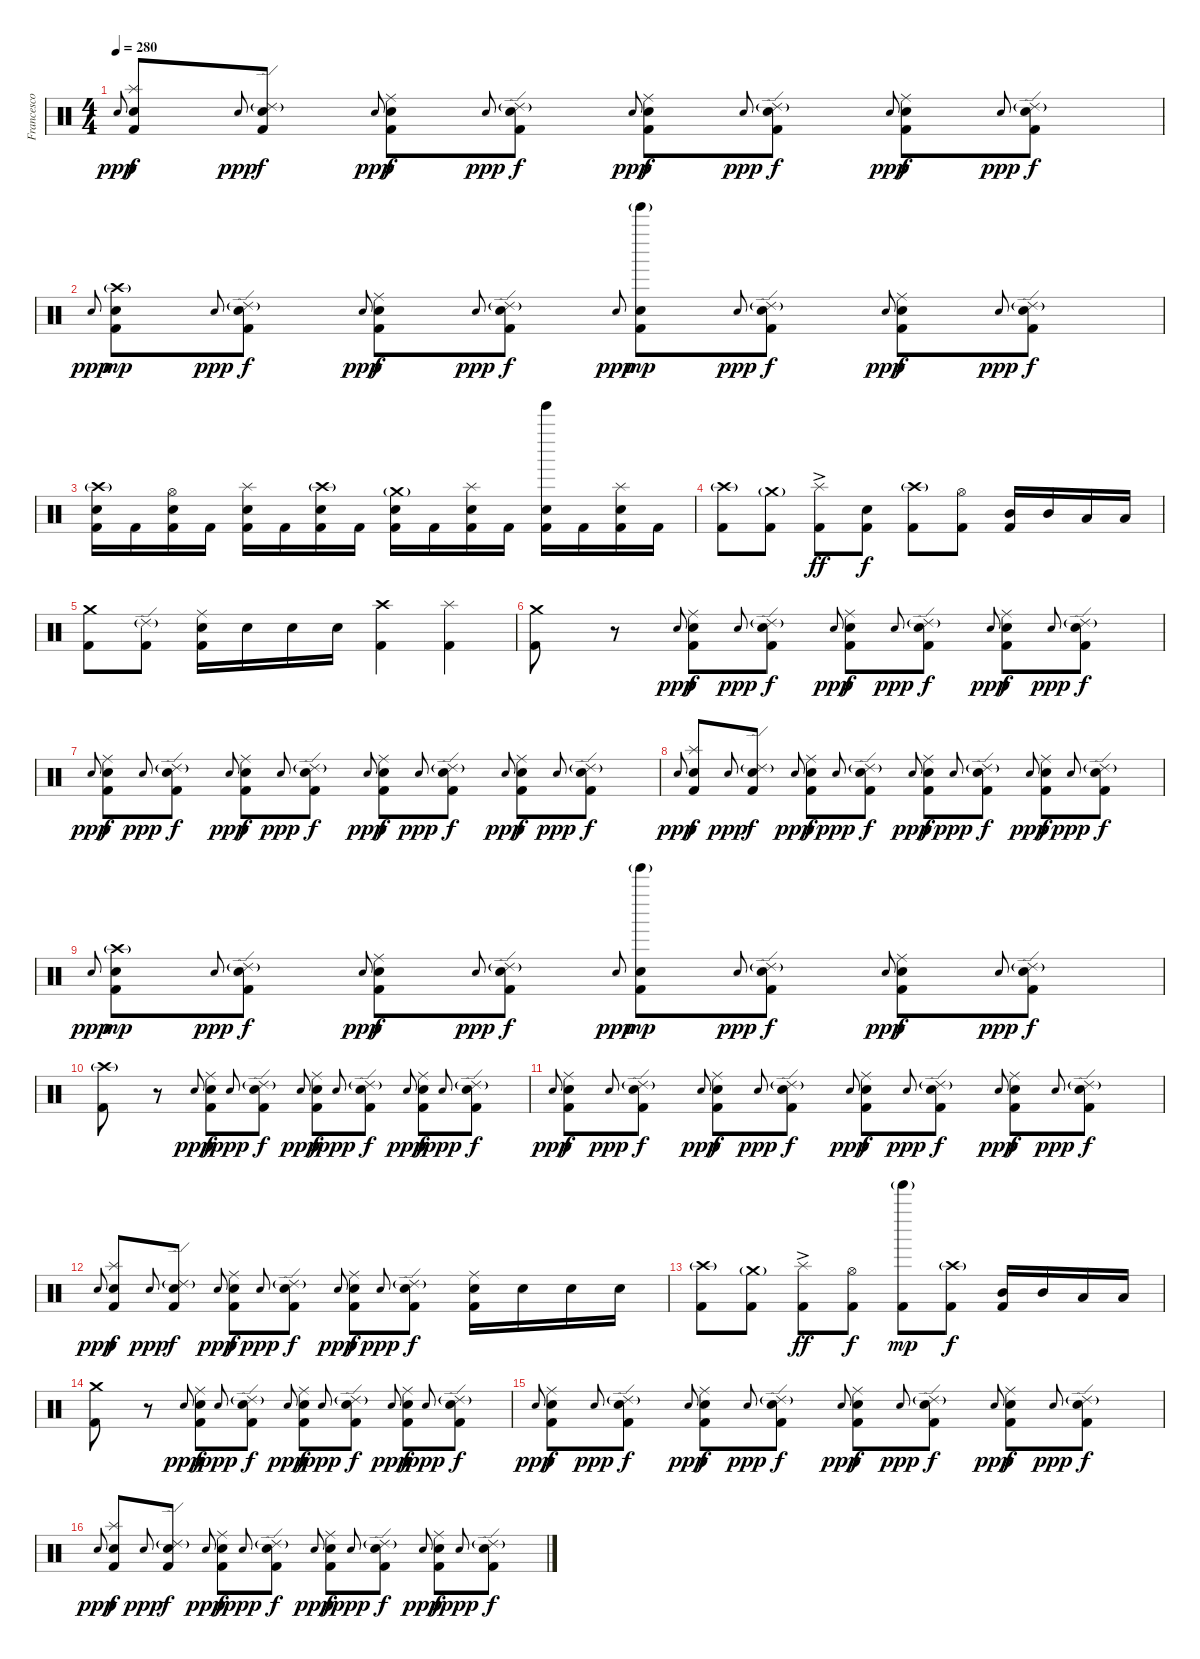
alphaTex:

\track ("Francesco Ferrini" "Francesco ") {instrument percussion}
\staff {score}
\articulation defaults
\ts (4 4)
\tempo 280
\clef neutral
\ks c "Electric Snare (hit)"{h}.8{gr onbeat dy ppp}
("Splash (hit)" "Electric Snare (hit)" "Kick (hit) 2").8{dy f} "Electric Snare (hit)"{h}.8{gr onbeat dy ppp} ("Ride (edge) 2"{g} "Electric Snare (hit)" "Kick (hit) 2").8{dy f} "Electric Snare (hit)"{h}.8{gr onbeat dy ppp} ("Ride (middle)" "Electric Snare (hit)" "Kick (hit) 2").8{dy f} "Electric Snare (hit)"{h}.8{gr onbeat dy ppp} ("Ride (edge) 2"{g} "Electric Snare (hit)" "Kick (hit) 2").8{dy f} "Electric Snare (hit)"{h}.8{gr onbeat dy ppp} ("Ride (middle)" "Electric Snare (hit)" "Kick (hit) 2").8{dy f} "Electric Snare (hit)"{h}.8{gr onbeat dy ppp} ("Ride (edge) 2"{g} "Electric Snare (hit)" "Kick (hit) 2").8{dy f} "Electric Snare (hit)"{h}.8{gr onbeat dy ppp} ("Ride (middle)" "Electric Snare (hit)" "Kick (hit) 2").8{dy f} "Electric Snare (hit)"{h}.8{gr onbeat dy ppp} ("Ride (edge) 2"{g} "Electric Snare (hit)" "Kick (hit) 2").8{dy f} |
"Electric Snare (hit)"{h}.8{gr onbeat dy ppp} ("Crash high (hit)"{g} "Electric Snare (hit)" "Kick (hit) 2").8{dy mp} "Electric Snare (hit)"{h}.8{gr onbeat dy ppp} ("Ride (edge) 2"{g} "Electric Snare (hit)" "Kick (hit) 2").8{dy f} "Electric Snare (hit)"{h}.8{gr onbeat dy ppp} ("Ride (middle)" "Electric Snare (hit)" "Kick (hit) 2").8{dy f} "Electric Snare (hit)"{h}.8{gr onbeat dy ppp} ("Ride (edge) 2"{g} "Electric Snare (hit)" "Kick (hit) 2").8{dy f} "Electric Snare (hit)"{h}.8{gr onbeat dy ppp} ("Tinkle Bell (hit)"{g} "Electric Snare (hit)" "Kick (hit) 2").8{dy mp} "Electric Snare (hit)"{h}.8{gr onbeat dy ppp} ("Ride (edge) 2"{g} "Electric Snare (hit)" "Kick (hit) 2").8{dy f} "Electric Snare (hit)"{h}.8{gr onbeat dy ppp} ("Ride (middle)" "Electric Snare (hit)" "Kick (hit) 2").8{dy f} "Electric Snare (hit)"{h}.8{gr onbeat dy ppp} ("Ride (edge) 2"{g} "Electric Snare (hit)" "Kick (hit) 2").8{dy f} |
("Crash high (hit)"{g} "Electric Snare (hit)" "Kick (hit) 2").16 "Kick (hit) 2".16 ("Hi-Hat (open)" "Electric Snare (hit)" "Kick (hit) 2").16 "Kick (hit) 2".16 ("Splash (hit)" "Electric Snare (hit)" "Kick (hit) 2").16 "Kick (hit) 2".16 ("Crash high (hit)"{g} "Electric Snare (hit)" "Kick (hit) 2").16 "Kick (hit) 2".16 ("Crash medium (hit)"{g} "Electric Snare (hit)" "Kick (hit) 2").16 "Kick (hit) 2".16 ("Splash (hit)" "Electric Snare (hit)" "Kick (hit) 2").16 "Kick (hit) 2".16 ("Tinkle Bell (hit)" "Electric Snare (hit)" "Kick (hit) 2").16 "Kick (hit) 2".16 ("Splash (hit)" "Electric Snare (hit)" "Kick (hit) 2").16 "Kick (hit) 2".16 |
("Crash high (hit)"{g} "Kick (hit) 2").8 ("Crash medium (hit)"{g} "Kick (hit) 2").8 ("Splash (hit)"{ac} "Kick (hit) 2").8{dy ff} ("Electric Snare (hit)" "Kick (hit) 2").8{dy f} ("Crash high (hit)"{g} "Kick (hit) 2").8 ("Hi-Hat (open)" "Kick (hit) 2").8 ("Mid Tom (hit)" "Kick (hit) 2").16 "Mid Tom (hit)".16 "Low Tom (hit)".16 "Low Tom (hit)".16 |
("Crash medium (hit)" "Kick (hit) 2").8 ("Ride (edge) 2"{g} "Kick (hit) 2").8 ("Ride (middle)" "Electric Snare (hit)" "Kick (hit) 2").16 "Electric Snare (hit)".16 "Electric Snare (hit)".16 "Electric Snare (hit)".16 ("Crash high (hit)" "Kick (hit) 2").4 ("Splash (hit)" "Kick (hit) 2").4 |
("Crash medium (hit)" "Kick (hit) 2").8 r.8 "Electric Snare (hit)"{h}.8{gr onbeat dy ppp} ("Ride (middle)" "Electric Snare (hit)" "Kick (hit) 2").8{dy f} "Electric Snare (hit)"{h}.8{gr onbeat dy ppp} ("Ride (edge) 2"{g} "Electric Snare (hit)" "Kick (hit) 2").8{dy f} "Electric Snare (hit)"{h}.8{gr onbeat dy ppp} ("Ride (middle)" "Electric Snare (hit)" "Kick (hit) 2").8{dy f} "Electric Snare (hit)"{h}.8{gr onbeat dy ppp} ("Ride (edge) 2"{g} "Electric Snare (hit)" "Kick (hit) 2").8{dy f} "Electric Snare (hit)"{h}.8{gr onbeat dy ppp} ("Ride (middle)" "Electric Snare (hit)" "Kick (hit) 2").8{dy f} "Electric Snare (hit)"{h}.8{gr onbeat dy ppp} ("Ride (edge) 2"{g} "Electric Snare (hit)" "Kick (hit) 2").8{dy f} |
"Electric Snare (hit)"{h}.8{gr onbeat dy ppp} ("Ride (middle)" "Electric Snare (hit)" "Kick (hit) 2").8{dy f} "Electric Snare (hit)"{h}.8{gr onbeat dy ppp} ("Ride (edge) 2"{g} "Electric Snare (hit)" "Kick (hit) 2").8{dy f} "Electric Snare (hit)"{h}.8{gr onbeat dy ppp} ("Ride (middle)" "Electric Snare (hit)" "Kick (hit) 2").8{dy f} "Electric Snare (hit)"{h}.8{gr onbeat dy ppp} ("Ride (edge) 2"{g} "Electric Snare (hit)" "Kick (hit) 2").8{dy f} "Electric Snare (hit)"{h}.8{gr onbeat dy ppp} ("Ride (middle)" "Electric Snare (hit)" "Kick (hit) 2").8{dy f} "Electric Snare (hit)"{h}.8{gr onbeat dy ppp} ("Ride (edge) 2"{g} "Electric Snare (hit)" "Kick (hit) 2").8{dy f} "Electric Snare (hit)"{h}.8{gr onbeat dy ppp} ("Ride (middle)" "Electric Snare (hit)" "Kick (hit) 2").8{dy f} "Electric Snare (hit)"{h}.8{gr onbeat dy ppp} ("Ride (edge) 2"{g} "Electric Snare (hit)" "Kick (hit) 2").8{dy f} |
"Electric Snare (hit)"{h}.8{gr onbeat dy ppp} ("Splash (hit)" "Electric Snare (hit)" "Kick (hit) 2").8{dy f} "Electric Snare (hit)"{h}.8{gr onbeat dy ppp} ("Ride (edge) 2"{g} "Electric Snare (hit)" "Kick (hit) 2").8{dy f} "Electric Snare (hit)"{h}.8{gr onbeat dy ppp} ("Ride (middle)" "Electric Snare (hit)" "Kick (hit) 2").8{dy f} "Electric Snare (hit)"{h}.8{gr onbeat dy ppp} ("Ride (edge) 2"{g} "Electric Snare (hit)" "Kick (hit) 2").8{dy f} "Electric Snare (hit)"{h}.8{gr onbeat dy ppp} ("Ride (middle)" "Electric Snare (hit)" "Kick (hit) 2").8{dy f} "Electric Snare (hit)"{h}.8{gr onbeat dy ppp} ("Ride (edge) 2"{g} "Electric Snare (hit)" "Kick (hit) 2").8{dy f} "Electric Snare (hit)"{h}.8{gr onbeat dy ppp} ("Ride (middle)" "Electric Snare (hit)" "Kick (hit) 2").8{dy f} "Electric Snare (hit)"{h}.8{gr onbeat dy ppp} ("Ride (edge) 2"{g} "Electric Snare (hit)" "Kick (hit) 2").8{dy f} |
"Electric Snare (hit)"{h}.8{gr onbeat dy ppp} ("Crash high (hit)"{g} "Electric Snare (hit)" "Kick (hit) 2").8{dy mp} "Electric Snare (hit)"{h}.8{gr onbeat dy ppp} ("Ride (edge) 2"{g} "Electric Snare (hit)" "Kick (hit) 2").8{dy f} "Electric Snare (hit)"{h}.8{gr onbeat dy ppp} ("Ride (middle)" "Electric Snare (hit)" "Kick (hit) 2").8{dy f} "Electric Snare (hit)"{h}.8{gr onbeat dy ppp} ("Ride (edge) 2"{g} "Electric Snare (hit)" "Kick (hit) 2").8{dy f} "Electric Snare (hit)"{h}.8{gr onbeat dy ppp} ("Tinkle Bell (hit)"{g} "Electric Snare (hit)" "Kick (hit) 2").8{dy mp} "Electric Snare (hit)"{h}.8{gr onbeat dy ppp} ("Ride (edge) 2"{g} "Electric Snare (hit)" "Kick (hit) 2").8{dy f} "Electric Snare (hit)"{h}.8{gr onbeat dy ppp} ("Ride (middle)" "Electric Snare (hit)" "Kick (hit) 2").8{dy f} "Electric Snare (hit)"{h}.8{gr onbeat dy ppp} ("Ride (edge) 2"{g} "Electric Snare (hit)" "Kick (hit) 2").8{dy f} |
("Crash high (hit)"{g} "Kick (hit) 2").8 r.8 "Electric Snare (hit)"{h}.8{gr onbeat dy ppp} ("Ride (middle)" "Electric Snare (hit)" "Kick (hit) 2").8{dy f} "Electric Snare (hit)"{h}.8{gr onbeat dy ppp} ("Ride (edge) 2"{g} "Electric Snare (hit)" "Kick (hit) 2").8{dy f} "Electric Snare (hit)"{h}.8{gr onbeat dy ppp} ("Ride (middle)" "Electric Snare (hit)" "Kick (hit) 2").8{dy f} "Electric Snare (hit)"{h}.8{gr onbeat dy ppp} ("Ride (edge) 2"{g} "Electric Snare (hit)" "Kick (hit) 2").8{dy f} "Electric Snare (hit)"{h}.8{gr onbeat dy ppp} ("Ride (middle)" "Electric Snare (hit)" "Kick (hit) 2").8{dy f} "Electric Snare (hit)"{h}.8{gr onbeat dy ppp} ("Ride (edge) 2"{g} "Electric Snare (hit)" "Kick (hit) 2").8{dy f} |
"Electric Snare (hit)"{h}.8{gr onbeat dy ppp} ("Ride (middle)" "Electric Snare (hit)" "Kick (hit) 2").8{dy f} "Electric Snare (hit)"{h}.8{gr onbeat dy ppp} ("Ride (edge) 2"{g} "Electric Snare (hit)" "Kick (hit) 2").8{dy f} "Electric Snare (hit)"{h}.8{gr onbeat dy ppp} ("Ride (middle)" "Electric Snare (hit)" "Kick (hit) 2").8{dy f} "Electric Snare (hit)"{h}.8{gr onbeat dy ppp} ("Ride (edge) 2"{g} "Electric Snare (hit)" "Kick (hit) 2").8{dy f} "Electric Snare (hit)"{h}.8{gr onbeat dy ppp} ("Ride (middle)" "Electric Snare (hit)" "Kick (hit) 2").8{dy f} "Electric Snare (hit)"{h}.8{gr onbeat dy ppp} ("Ride (edge) 2"{g} "Electric Snare (hit)" "Kick (hit) 2").8{dy f} "Electric Snare (hit)"{h}.8{gr onbeat dy ppp} ("Ride (middle)" "Electric Snare (hit)" "Kick (hit) 2").8{dy f} "Electric Snare (hit)"{h}.8{gr onbeat dy ppp} ("Ride (edge) 2"{g} "Electric Snare (hit)" "Kick (hit) 2").8{dy f} |
"Electric Snare (hit)"{h}.8{gr onbeat dy ppp} ("Splash (hit)" "Electric Snare (hit)" "Kick (hit) 2").8{dy f} "Electric Snare (hit)"{h}.8{gr onbeat dy ppp} ("Ride (edge) 2"{g} "Electric Snare (hit)" "Kick (hit) 2").8{dy f} "Electric Snare (hit)"{h}.8{gr onbeat dy ppp} ("Ride (middle)" "Electric Snare (hit)" "Kick (hit) 2").8{dy f} "Electric Snare (hit)"{h}.8{gr onbeat dy ppp} ("Ride (edge) 2"{g} "Electric Snare (hit)" "Kick (hit) 2").8{dy f} "Electric Snare (hit)"{h}.8{gr onbeat dy ppp} ("Ride (middle)" "Electric Snare (hit)" "Kick (hit) 2").8{dy f} "Electric Snare (hit)"{h}.8{gr onbeat dy ppp} ("Ride (edge) 2"{g} "Electric Snare (hit)" "Kick (hit) 2").8{dy f} ("Ride (middle)" "Electric Snare (hit)" "Kick (hit) 2").16 "Electric Snare (hit)".16 "Electric Snare (hit)".16 "Electric Snare (hit)".16 |
("Crash high (hit)"{g} "Kick (hit) 2").8 ("Crash medium (hit)"{g} "Kick (hit) 2").8 ("Splash (hit)"{ac} "Kick (hit) 2").8{dy ff} ("Hi-Hat (open)" "Kick (hit) 2").8{dy f} ("Tinkle Bell (hit)"{g} "Kick (hit) 2").8{dy mp} ("Crash high (hit)"{g} "Kick (hit) 2").8{dy f} ("Mid Tom (hit)" "Kick (hit) 2").16 "Mid Tom (hit)".16 "Low Tom (hit)".16 "Low Tom (hit)".16 |
("Crash medium (hit)" "Kick (hit) 2").8 r.8 "Electric Snare (hit)"{h}.8{gr onbeat dy ppp} ("Ride (middle)" "Electric Snare (hit)" "Kick (hit) 2").8{dy f} "Electric Snare (hit)"{h}.8{gr onbeat dy ppp} ("Ride (edge) 2"{g} "Electric Snare (hit)" "Kick (hit) 2").8{dy f} "Electric Snare (hit)"{h}.8{gr onbeat dy ppp} ("Ride (middle)" "Electric Snare (hit)" "Kick (hit) 2").8{dy f} "Electric Snare (hit)"{h}.8{gr onbeat dy ppp} ("Ride (edge) 2"{g} "Electric Snare (hit)" "Kick (hit) 2").8{dy f} "Electric Snare (hit)"{h}.8{gr onbeat dy ppp} ("Ride (middle)" "Electric Snare (hit)" "Kick (hit) 2").8{dy f} "Electric Snare (hit)"{h}.8{gr onbeat dy ppp} ("Ride (edge) 2"{g} "Electric Snare (hit)" "Kick (hit) 2").8{dy f} |
"Electric Snare (hit)"{h}.8{gr onbeat dy ppp} ("Ride (middle)" "Electric Snare (hit)" "Kick (hit) 2").8{dy f} "Electric Snare (hit)"{h}.8{gr onbeat dy ppp} ("Ride (edge) 2"{g} "Electric Snare (hit)" "Kick (hit) 2").8{dy f} "Electric Snare (hit)"{h}.8{gr onbeat dy ppp} ("Ride (middle)" "Electric Snare (hit)" "Kick (hit) 2").8{dy f} "Electric Snare (hit)"{h}.8{gr onbeat dy ppp} ("Ride (edge) 2"{g} "Electric Snare (hit)" "Kick (hit) 2").8{dy f} "Electric Snare (hit)"{h}.8{gr onbeat dy ppp} ("Ride (middle)" "Electric Snare (hit)" "Kick (hit) 2").8{dy f} "Electric Snare (hit)"{h}.8{gr onbeat dy ppp} ("Ride (edge) 2"{g} "Electric Snare (hit)" "Kick (hit) 2").8{dy f} "Electric Snare (hit)"{h}.8{gr onbeat dy ppp} ("Ride (middle)" "Electric Snare (hit)" "Kick (hit) 2").8{dy f} "Electric Snare (hit)"{h}.8{gr onbeat dy ppp} ("Ride (edge) 2"{g} "Electric Snare (hit)" "Kick (hit) 2").8{dy f} |
"Electric Snare (hit)"{h}.8{gr onbeat dy ppp} ("Splash (hit)" "Electric Snare (hit)" "Kick (hit) 2").8{dy f} "Electric Snare (hit)"{h}.8{gr onbeat dy ppp} ("Ride (edge) 2"{g} "Electric Snare (hit)" "Kick (hit) 2").8{dy f} "Electric Snare (hit)"{h}.8{gr onbeat dy ppp} ("Ride (middle)" "Electric Snare (hit)" "Kick (hit) 2").8{dy f} "Electric Snare (hit)"{h}.8{gr onbeat dy ppp} ("Ride (edge) 2"{g} "Electric Snare (hit)" "Kick (hit) 2").8{dy f} "Electric Snare (hit)"{h}.8{gr onbeat dy ppp} ("Ride (middle)" "Electric Snare (hit)" "Kick (hit) 2").8{dy f} "Electric Snare (hit)"{h}.8{gr onbeat dy ppp} ("Ride (edge) 2"{g} "Electric Snare (hit)" "Kick (hit) 2").8{dy f} "Electric Snare (hit)"{h}.8{gr onbeat dy ppp} ("Ride (middle)" "Electric Snare (hit)" "Kick (hit) 2").8{dy f} "Electric Snare (hit)"{h}.8{gr onbeat dy ppp} ("Ride (edge) 2"{g} "Electric Snare (hit)" "Kick (hit) 2").8{dy f}
